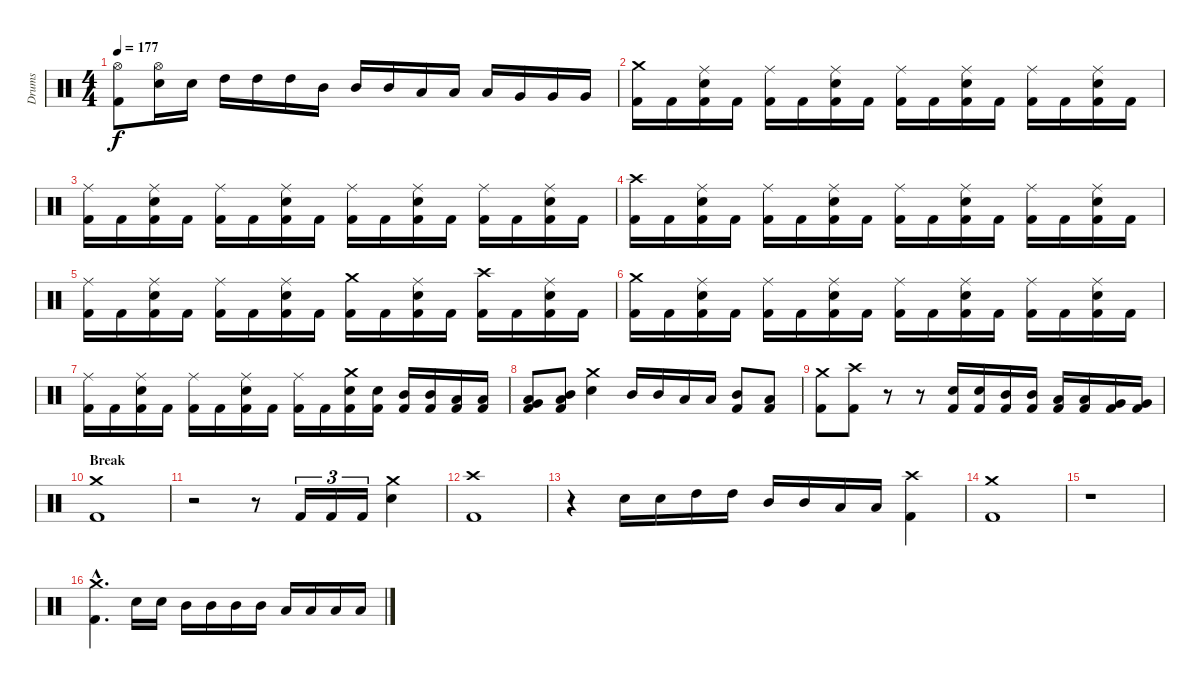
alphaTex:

\track ("Drums" "Drums") {instrument percussion}
\staff {score}
\articulation defaults
\ts (4 4)
\tempo 177
\clef neutral
\ks c
("Kick (hit) 2" "Hi-Hat (open)").8{dy f} ("Electric Snare (hit)" "Hi-Hat (open)").16 "Electric Snare (hit)".16 "High Tom (hit)".16 "High Tom (hit)".16 "High Tom (hit)".16 "Mid Tom (hit)".16 "Mid Tom (hit)".16 "Mid Tom (hit)".16 "Low Tom (hit)".16 "Low Tom (hit)".16 "Low Tom (hit)".16 "Very Low Tom (hit)".16 "Very Low Tom (hit)".16 "Very Low Tom (hit)".16 |
("Kick (hit) 2" "Crash medium (hit)").16 "Kick (hit) 2".16 ("Kick (hit) 2" "Electric Snare (hit)" "Ride (middle)").16 "Kick (hit) 2".16 ("Kick (hit) 2" "Ride (middle)").16 "Kick (hit) 2".16 ("Kick (hit) 2" "Electric Snare (hit)" "Ride (middle)").16 "Kick (hit) 2".16 ("Kick (hit) 2" "Ride (middle)").16 "Kick (hit) 2".16 ("Kick (hit) 2" "Electric Snare (hit)" "Ride (middle)").16 "Kick (hit) 2".16 ("Kick (hit) 2" "Ride (middle)").16 "Kick (hit) 2".16 ("Kick (hit) 2" "Electric Snare (hit)" "Ride (middle)").16 "Kick (hit) 2".16 |
("Kick (hit) 2" "Ride (middle)").16 "Kick (hit) 2".16 ("Kick (hit) 2" "Electric Snare (hit)" "Ride (middle)").16 "Kick (hit) 2".16 ("Kick (hit) 2" "Ride (middle)").16 "Kick (hit) 2".16 ("Kick (hit) 2" "Electric Snare (hit)" "Ride (middle)").16 "Kick (hit) 2".16 ("Kick (hit) 2" "Ride (middle)").16 "Kick (hit) 2".16 ("Kick (hit) 2" "Electric Snare (hit)" "Ride (middle)").16 "Kick (hit) 2".16 ("Kick (hit) 2" "Ride (middle)").16 "Kick (hit) 2".16 ("Kick (hit) 2" "Electric Snare (hit)" "Ride (middle)").16 "Kick (hit) 2".16 |
("Kick (hit) 2" "Crash high (hit)").16 "Kick (hit) 2".16 ("Kick (hit) 2" "Electric Snare (hit)" "Ride (middle)").16 "Kick (hit) 2".16 ("Kick (hit) 2" "Ride (middle)").16 "Kick (hit) 2".16 ("Kick (hit) 2" "Electric Snare (hit)" "Ride (middle)").16 "Kick (hit) 2".16 ("Kick (hit) 2" "Ride (middle)").16 "Kick (hit) 2".16 ("Kick (hit) 2" "Electric Snare (hit)" "Ride (middle)").16 "Kick (hit) 2".16 ("Kick (hit) 2" "Ride (middle)").16 "Kick (hit) 2".16 ("Kick (hit) 2" "Electric Snare (hit)" "Ride (middle)").16 "Kick (hit) 2".16 |
("Kick (hit) 2" "Ride (middle)").16 "Kick (hit) 2".16 ("Kick (hit) 2" "Electric Snare (hit)" "Ride (middle)").16 "Kick (hit) 2".16 ("Kick (hit) 2" "Ride (middle)").16 "Kick (hit) 2".16 ("Kick (hit) 2" "Electric Snare (hit)" "Ride (middle)").16 "Kick (hit) 2".16 ("Kick (hit) 2" "Crash medium (hit)").16 "Kick (hit) 2".16 ("Kick (hit) 2" "Electric Snare (hit)" "Ride (middle)").16 "Kick (hit) 2".16 ("Kick (hit) 2" "Crash high (hit)").16 "Kick (hit) 2".16 ("Kick (hit) 2" "Electric Snare (hit)" "Ride (middle)").16 "Kick (hit) 2".16 |
("Kick (hit) 2" "Crash medium (hit)").16 "Kick (hit) 2".16 ("Kick (hit) 2" "Electric Snare (hit)" "Ride (middle)").16 "Kick (hit) 2".16 ("Kick (hit) 2" "Ride (middle)").16 "Kick (hit) 2".16 ("Kick (hit) 2" "Electric Snare (hit)" "Ride (middle)").16 "Kick (hit) 2".16 ("Kick (hit) 2" "Ride (middle)").16 "Kick (hit) 2".16 ("Kick (hit) 2" "Electric Snare (hit)" "Ride (middle)").16 "Kick (hit) 2".16 ("Kick (hit) 2" "Ride (middle)").16 "Kick (hit) 2".16 ("Kick (hit) 2" "Electric Snare (hit)" "Ride (middle)").16 "Kick (hit) 2".16 |
("Kick (hit) 2" "Ride (middle)").16 "Kick (hit) 2".16 ("Kick (hit) 2" "Electric Snare (hit)" "Ride (middle)").16 "Kick (hit) 2".16 ("Kick (hit) 2" "Ride (middle)").16 "Kick (hit) 2".16 ("Kick (hit) 2" "Electric Snare (hit)" "Ride (middle)").16 "Kick (hit) 2".16 ("Kick (hit) 2" "Ride (middle)").16 "Kick (hit) 2".16 ("Kick (hit) 2" "Electric Snare (hit)" "Crash medium (hit)").16 ("Kick (hit) 2" "Electric Snare (hit)").16 ("Kick (hit) 2" "Mid Tom (hit)").16 ("Kick (hit) 2" "Mid Tom (hit)").16 ("Kick (hit) 2" "Low Tom (hit)").16 ("Kick (hit) 2" "Low Tom (hit)").16 |
("Kick (hit) 2" "Very Low Tom (hit)" "Low Tom (hit)").8 ("Kick (hit) 2" "Low Tom (hit)" "Mid Tom (hit)").8 ("Electric Snare (hit)" "Crash medium (hit)").4 "Mid Tom (hit)".16 "Mid Tom (hit)".16 "Low Tom (hit)".16 "Low Tom (hit)".16 ("Kick (hit) 2" "Mid Tom (hit)").8 ("Kick (hit) 2" "Low Tom (hit)").8 |
("Kick (hit) 2" "Crash medium (hit)").8 ("Kick (hit) 2" "Crash high (hit)").8 r.8 r.8 ("Kick (hit) 2" "Electric Snare (hit)").16 ("Kick (hit) 2" "Electric Snare (hit)").16 ("Kick (hit) 2" "Mid Tom (hit)").16 ("Kick (hit) 2" "Mid Tom (hit)").16 ("Kick (hit) 2" "Low Tom (hit)").16 ("Kick (hit) 2" "Low Tom (hit)").16 ("Kick (hit) 2" "Very Low Tom (hit)").16 ("Kick (hit) 2" "Very Low Tom (hit)").16 |
\section ("" "Break")
("Kick (hit) 2" "Crash medium (hit)").1 |
r.2 r.8 "Kick (hit) 2".16{tu (3 2)} "Kick (hit) 2".16{tu (3 2)} "Kick (hit) 2".16{tu (3 2)} ("Electric Snare (hit)" "Crash medium (hit)").4 |
("Kick (hit) 2" "Crash high (hit)").1 |
r.4 "Electric Snare (hit)".16 "Electric Snare (hit)".16 "High Tom (hit)".16 "High Tom (hit)".16 "Mid Tom (hit)".16 "Mid Tom (hit)".16 "Low Tom (hit)".16 "Low Tom (hit)".16 ("Kick (hit) 2" "Crash high (hit)").4 |
("Kick (hit) 2" "Crash medium (hit)").1 |
r.1 |
("Kick (hit) 2"{hac} "Crash medium (hit)"{hac}).4{d} "Electric Snare (hit)".16 "Electric Snare (hit)".16 "Mid Tom (hit)".16 "Mid Tom (hit)".16 "Mid Tom (hit)".16 "Mid Tom (hit)".16 "Low Tom (hit)".16 "Low Tom (hit)".16 "Low Tom (hit)".16 "Low Tom (hit)".16
